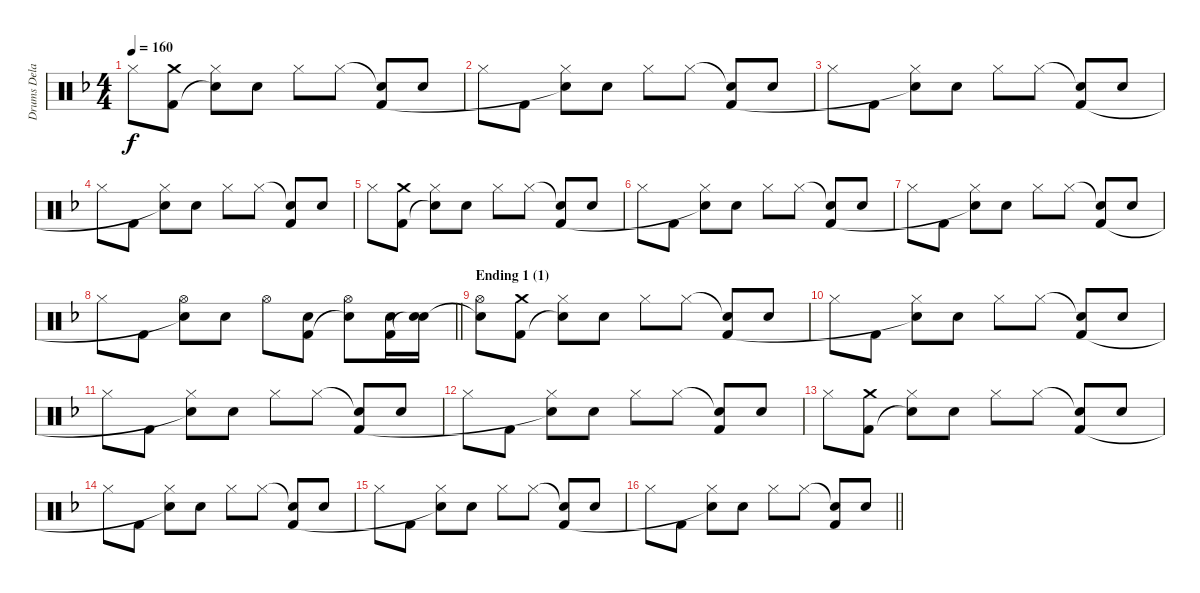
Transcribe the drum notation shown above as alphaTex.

\track ("Drums Delay" "Drums Dela") {instrument percussion}
\staff {score}
\articulation defaults
\ts (4 4)
\tempo 160
\clef neutral
\ks f "Hi-Hat (closed)".8{dy f}
("Crash medium (hit)" "Kick (hit) 2").8 ("Hi-Hat (closed)" "Snare (hit)"{t}).8 "Electric Snare (hit)".8 "Hi-Hat (closed)".8 "Hi-Hat (closed)".8 ("Snare (hit)"{t} "Kick (hit) 2").8 "Electric Snare (hit)".8 |
"Hi-Hat (closed)".8 "Kick (hit) 2".8 ("Hi-Hat (closed)" "Snare (hit)"{t}).8 "Electric Snare (hit)".8 "Hi-Hat (closed)".8 "Hi-Hat (closed)".8 ("Snare (hit)"{t} "Kick (hit) 2").8 "Electric Snare (hit)".8 |
"Hi-Hat (closed)".8 "Kick (hit) 2".8 ("Hi-Hat (closed)" "Snare (hit)"{t}).8 "Electric Snare (hit)".8 "Hi-Hat (closed)".8 "Hi-Hat (closed)".8 ("Snare (hit)"{t} "Kick (hit) 2").8 "Electric Snare (hit)".8 |
"Hi-Hat (closed)".8 "Kick (hit) 2".8 ("Hi-Hat (closed)" "Snare (hit)"{t}).8 "Electric Snare (hit)".8 "Hi-Hat (closed)".8 "Hi-Hat (closed)".8 ("Snare (hit)"{t} "Kick (hit) 2").8 "Electric Snare (hit)".8 |
"Hi-Hat (closed)".8 ("Crash medium (hit)" "Kick (hit) 2").8 ("Hi-Hat (closed)" "Snare (hit)"{t}).8 "Electric Snare (hit)".8 "Hi-Hat (closed)".8 "Hi-Hat (closed)".8 ("Snare (hit)"{t} "Kick (hit) 2").8 "Electric Snare (hit)".8 |
"Hi-Hat (closed)".8 "Kick (hit) 2".8 ("Hi-Hat (closed)" "Snare (hit)"{t}).8 "Electric Snare (hit)".8 "Hi-Hat (closed)".8 "Hi-Hat (closed)".8 ("Snare (hit)"{t} "Kick (hit) 2").8 "Electric Snare (hit)".8 |
"Hi-Hat (closed)".8 "Kick (hit) 2".8 ("Hi-Hat (closed)" "Snare (hit)"{t}).8 "Electric Snare (hit)".8 "Hi-Hat (closed)".8 "Hi-Hat (closed)".8 ("Snare (hit)"{t} "Kick (hit) 2").8 "Electric Snare (hit)".8 |
\barLineRight lightlight "Hi-Hat (closed)".8 "Kick (hit) 2".8
("Hi-Hat (open)" "Snare (hit)"{t}).8 "Electric Snare (hit)".8 "Hi-Hat (open)".8 ("Electric Snare (hit)" "Kick (hit) 2").8 ("Hi-Hat (open)" "Snare (hit)"{t}).8 ("Electric Snare (hit)" "Kick (hit) 2").16 ("Electric Snare (hit)" "Snare (hit)"{t}).16 |
\section ("" "Ending 1 (1)")
("Hi-Hat (open)" "Snare (hit)"{t}).8 ("Crash medium (hit)" "Kick (hit) 2").8 ("Hi-Hat (closed)" "Snare (hit)"{t}).8 "Electric Snare (hit)".8 "Hi-Hat (closed)".8 "Hi-Hat (closed)".8 ("Snare (hit)"{t} "Kick (hit) 2").8 "Electric Snare (hit)".8 |
"Hi-Hat (closed)".8 "Kick (hit) 2".8 ("Hi-Hat (closed)" "Snare (hit)"{t}).8 "Electric Snare (hit)".8 "Hi-Hat (closed)".8 "Hi-Hat (closed)".8 ("Snare (hit)"{t} "Kick (hit) 2").8 "Electric Snare (hit)".8 |
"Hi-Hat (closed)".8 "Kick (hit) 2".8 ("Hi-Hat (closed)" "Snare (hit)"{t}).8 "Electric Snare (hit)".8 "Hi-Hat (closed)".8 "Hi-Hat (closed)".8 ("Snare (hit)"{t} "Kick (hit) 2").8 "Electric Snare (hit)".8 |
"Hi-Hat (closed)".8 "Kick (hit) 2".8 ("Hi-Hat (closed)" "Snare (hit)"{t}).8 "Electric Snare (hit)".8 "Hi-Hat (closed)".8 "Hi-Hat (closed)".8 ("Snare (hit)"{t} "Kick (hit) 2").8 "Electric Snare (hit)".8 |
"Hi-Hat (closed)".8 ("Crash medium (hit)" "Kick (hit) 2").8 ("Hi-Hat (closed)" "Snare (hit)"{t}).8 "Electric Snare (hit)".8 "Hi-Hat (closed)".8 "Hi-Hat (closed)".8 ("Snare (hit)"{t} "Kick (hit) 2").8 "Electric Snare (hit)".8 |
"Hi-Hat (closed)".8 "Kick (hit) 2".8 ("Hi-Hat (closed)" "Snare (hit)"{t}).8 "Electric Snare (hit)".8 "Hi-Hat (closed)".8 "Hi-Hat (closed)".8 ("Snare (hit)"{t} "Kick (hit) 2").8 "Electric Snare (hit)".8 |
"Hi-Hat (closed)".8 "Kick (hit) 2".8 ("Hi-Hat (closed)" "Snare (hit)"{t}).8 "Electric Snare (hit)".8 "Hi-Hat (closed)".8 "Hi-Hat (closed)".8 ("Snare (hit)"{t} "Kick (hit) 2").8 "Electric Snare (hit)".8 |
\barLineRight lightlight "Hi-Hat (closed)".8 "Kick (hit) 2".8
("Hi-Hat (closed)" "Snare (hit)"{t}).8 "Electric Snare (hit)".8 "Hi-Hat (closed)".8 "Hi-Hat (closed)".8 ("Snare (hit)"{t} "Kick (hit) 2").8 "Electric Snare (hit)".8
